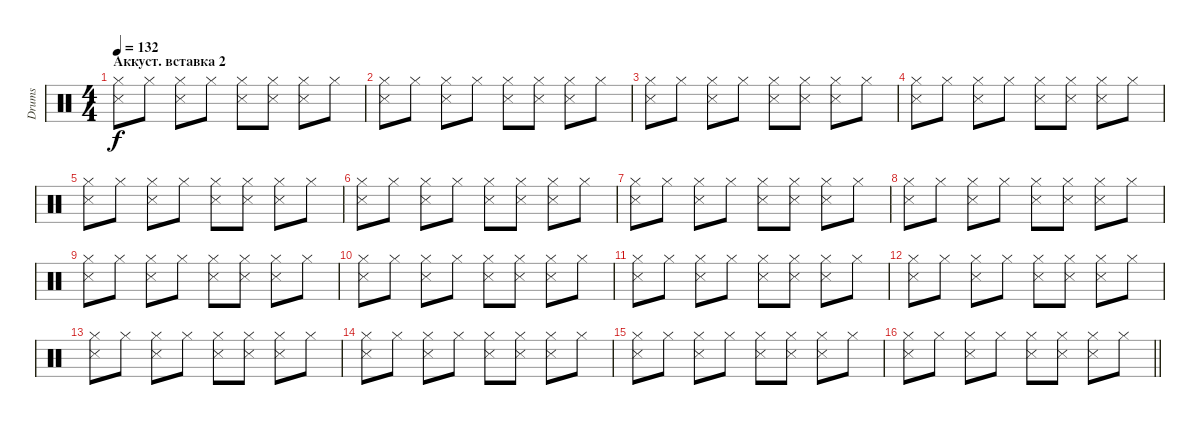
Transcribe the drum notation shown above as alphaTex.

\track ("Drums" "Drums") {instrument percussion}
\staff {score}
\articulation defaults
\ts (4 4)
\section ("" "Аккуст. вставка 2")
\tempo 132
\clef neutral
\ks c
("Snare (side stick) 3" "Hi-Hat (closed)").8{dy f} "Hi-Hat (closed)".8 ("Snare (side stick) 3" "Hi-Hat (closed)").8 "Hi-Hat (closed)".8 ("Snare (side stick) 3" "Hi-Hat (closed)").8 ("Snare (side stick) 3" "Hi-Hat (closed)").8 ("Snare (side stick) 3" "Hi-Hat (closed)").8 "Hi-Hat (closed)".8 |
("Snare (side stick) 3" "Hi-Hat (closed)").8 "Hi-Hat (closed)".8 ("Snare (side stick) 3" "Hi-Hat (closed)").8 "Hi-Hat (closed)".8 ("Snare (side stick) 3" "Hi-Hat (closed)").8 ("Snare (side stick) 3" "Hi-Hat (closed)").8 ("Snare (side stick) 3" "Hi-Hat (closed)").8 "Hi-Hat (closed)".8 |
("Snare (side stick) 3" "Hi-Hat (closed)").8 "Hi-Hat (closed)".8 ("Snare (side stick) 3" "Hi-Hat (closed)").8 "Hi-Hat (closed)".8 ("Snare (side stick) 3" "Hi-Hat (closed)").8 ("Snare (side stick) 3" "Hi-Hat (closed)").8 ("Snare (side stick) 3" "Hi-Hat (closed)").8 "Hi-Hat (closed)".8 |
("Snare (side stick) 3" "Hi-Hat (closed)").8 "Hi-Hat (closed)".8 ("Snare (side stick) 3" "Hi-Hat (closed)").8 "Hi-Hat (closed)".8 ("Snare (side stick) 3" "Hi-Hat (closed)").8 ("Snare (side stick) 3" "Hi-Hat (closed)").8 ("Snare (side stick) 3" "Hi-Hat (closed)").8 "Hi-Hat (closed)".8 |
("Snare (side stick) 3" "Hi-Hat (closed)").8 "Hi-Hat (closed)".8 ("Snare (side stick) 3" "Hi-Hat (closed)").8 "Hi-Hat (closed)".8 ("Snare (side stick) 3" "Hi-Hat (closed)").8 ("Snare (side stick) 3" "Hi-Hat (closed)").8 ("Snare (side stick) 3" "Hi-Hat (closed)").8 "Hi-Hat (closed)".8 |
("Snare (side stick) 3" "Hi-Hat (closed)").8 "Hi-Hat (closed)".8 ("Snare (side stick) 3" "Hi-Hat (closed)").8 "Hi-Hat (closed)".8 ("Snare (side stick) 3" "Hi-Hat (closed)").8 ("Snare (side stick) 3" "Hi-Hat (closed)").8 ("Snare (side stick) 3" "Hi-Hat (closed)").8 "Hi-Hat (closed)".8 |
("Snare (side stick) 3" "Hi-Hat (closed)").8 "Hi-Hat (closed)".8 ("Snare (side stick) 3" "Hi-Hat (closed)").8 "Hi-Hat (closed)".8 ("Snare (side stick) 3" "Hi-Hat (closed)").8 ("Snare (side stick) 3" "Hi-Hat (closed)").8 ("Snare (side stick) 3" "Hi-Hat (closed)").8 "Hi-Hat (closed)".8 |
("Snare (side stick) 3" "Hi-Hat (closed)").8 "Hi-Hat (closed)".8 ("Snare (side stick) 3" "Hi-Hat (closed)").8 "Hi-Hat (closed)".8 ("Snare (side stick) 3" "Hi-Hat (closed)").8 ("Snare (side stick) 3" "Hi-Hat (closed)").8 ("Snare (side stick) 3" "Hi-Hat (closed)").8 "Hi-Hat (closed)".8 |
("Snare (side stick) 3" "Hi-Hat (closed)").8 "Hi-Hat (closed)".8 ("Snare (side stick) 3" "Hi-Hat (closed)").8 "Hi-Hat (closed)".8 ("Snare (side stick) 3" "Hi-Hat (closed)").8 ("Snare (side stick) 3" "Hi-Hat (closed)").8 ("Snare (side stick) 3" "Hi-Hat (closed)").8 "Hi-Hat (closed)".8 |
("Snare (side stick) 3" "Hi-Hat (closed)").8 "Hi-Hat (closed)".8 ("Snare (side stick) 3" "Hi-Hat (closed)").8 "Hi-Hat (closed)".8 ("Snare (side stick) 3" "Hi-Hat (closed)").8 ("Snare (side stick) 3" "Hi-Hat (closed)").8 ("Snare (side stick) 3" "Hi-Hat (closed)").8 "Hi-Hat (closed)".8 |
("Snare (side stick) 3" "Hi-Hat (closed)").8 "Hi-Hat (closed)".8 ("Snare (side stick) 3" "Hi-Hat (closed)").8 "Hi-Hat (closed)".8 ("Snare (side stick) 3" "Hi-Hat (closed)").8 ("Snare (side stick) 3" "Hi-Hat (closed)").8 ("Snare (side stick) 3" "Hi-Hat (closed)").8 "Hi-Hat (closed)".8 |
("Snare (side stick) 3" "Hi-Hat (closed)").8 "Hi-Hat (closed)".8 ("Snare (side stick) 3" "Hi-Hat (closed)").8 "Hi-Hat (closed)".8 ("Snare (side stick) 3" "Hi-Hat (closed)").8 ("Snare (side stick) 3" "Hi-Hat (closed)").8 ("Snare (side stick) 3" "Hi-Hat (closed)").8 "Hi-Hat (closed)".8 |
("Snare (side stick) 3" "Hi-Hat (closed)").8 "Hi-Hat (closed)".8 ("Snare (side stick) 3" "Hi-Hat (closed)").8 "Hi-Hat (closed)".8 ("Snare (side stick) 3" "Hi-Hat (closed)").8 ("Snare (side stick) 3" "Hi-Hat (closed)").8 ("Snare (side stick) 3" "Hi-Hat (closed)").8 "Hi-Hat (closed)".8 |
("Snare (side stick) 3" "Hi-Hat (closed)").8 "Hi-Hat (closed)".8 ("Snare (side stick) 3" "Hi-Hat (closed)").8 "Hi-Hat (closed)".8 ("Snare (side stick) 3" "Hi-Hat (closed)").8 ("Snare (side stick) 3" "Hi-Hat (closed)").8 ("Snare (side stick) 3" "Hi-Hat (closed)").8 "Hi-Hat (closed)".8 |
("Snare (side stick) 3" "Hi-Hat (closed)").8 "Hi-Hat (closed)".8 ("Snare (side stick) 3" "Hi-Hat (closed)").8 "Hi-Hat (closed)".8 ("Snare (side stick) 3" "Hi-Hat (closed)").8 ("Snare (side stick) 3" "Hi-Hat (closed)").8 ("Snare (side stick) 3" "Hi-Hat (closed)").8 "Hi-Hat (closed)".8 |
\barLineRight lightlight
("Snare (side stick) 3" "Hi-Hat (closed)").8 "Hi-Hat (closed)".8 ("Snare (side stick) 3" "Hi-Hat (closed)").8 "Hi-Hat (closed)".8 ("Snare (side stick) 3" "Hi-Hat (closed)").8 ("Snare (side stick) 3" "Hi-Hat (closed)").8 ("Snare (side stick) 3" "Hi-Hat (closed)").8 "Hi-Hat (closed)".8
